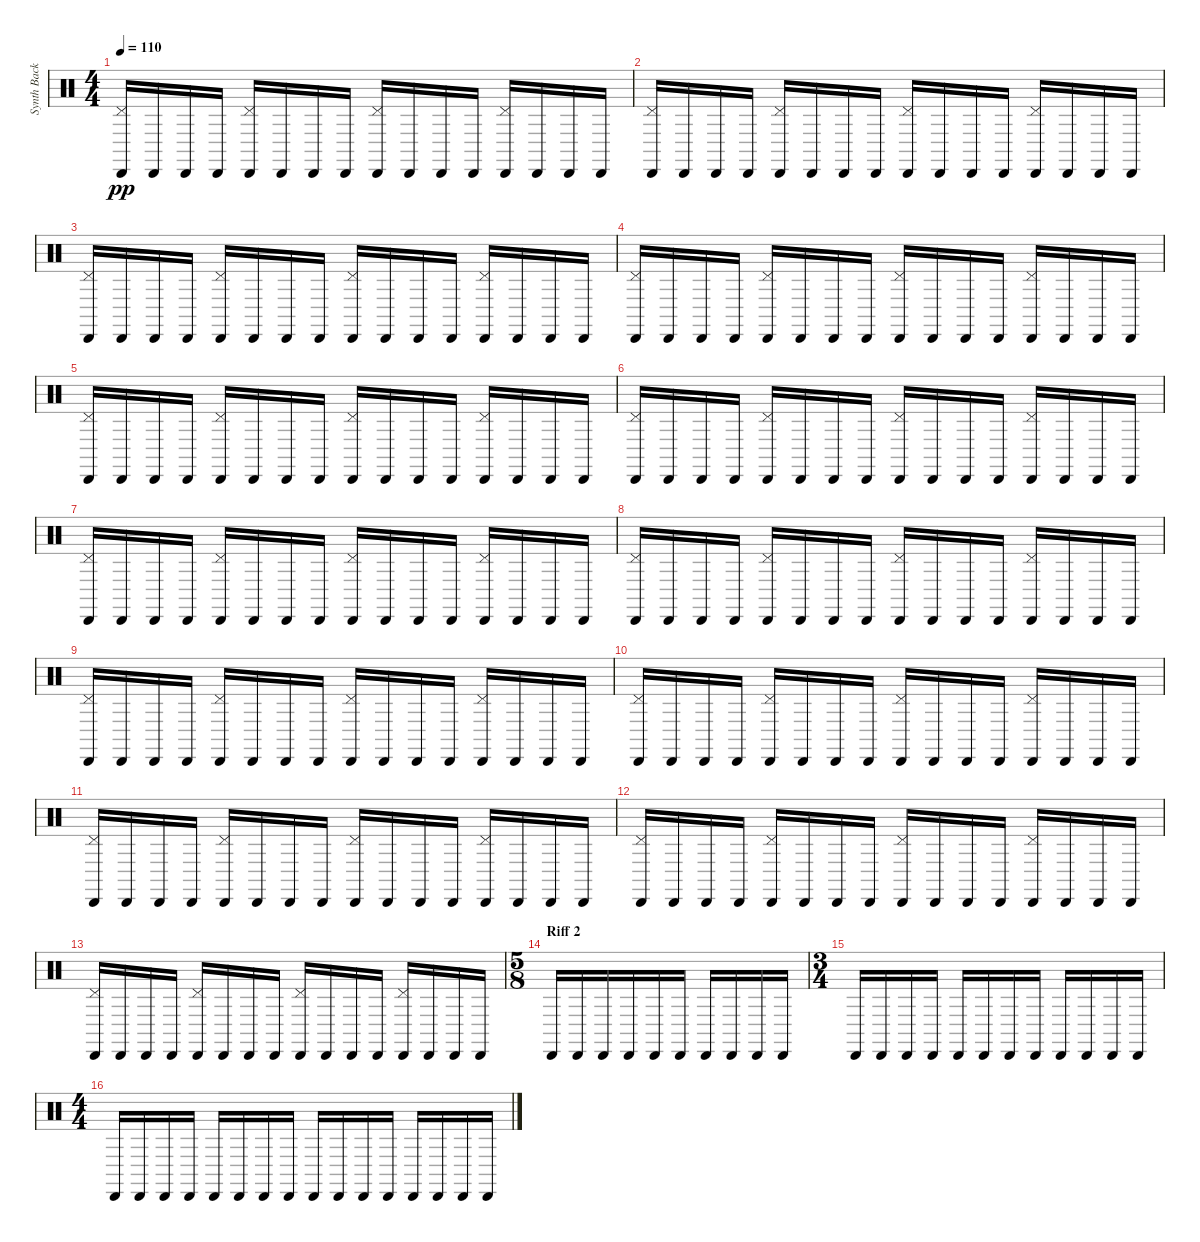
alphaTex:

\track ("Synth Background Rhythm" "Synth Back") {instrument percussion}
\staff {score}
\articulation defaults
\ts (4 4)
\tempo 110
\clef neutral
\ks c
("Pedal Hi-Hat (hit)" "Cabasa (hit)").16{dy pp} "Cabasa (hit)".16 "Cabasa (hit)".16 "Cabasa (hit)".16 ("Pedal Hi-Hat (hit)" "Cabasa (hit)").16 "Cabasa (hit)".16 "Cabasa (hit)".16 "Cabasa (hit)".16 ("Pedal Hi-Hat (hit)" "Cabasa (hit)").16 "Cabasa (hit)".16 "Cabasa (hit)".16 "Cabasa (hit)".16 ("Pedal Hi-Hat (hit)" "Cabasa (hit)").16 "Cabasa (hit)".16 "Cabasa (hit)".16 "Cabasa (hit)".16 |
("Pedal Hi-Hat (hit)" "Cabasa (hit)").16 "Cabasa (hit)".16 "Cabasa (hit)".16 "Cabasa (hit)".16 ("Pedal Hi-Hat (hit)" "Cabasa (hit)").16 "Cabasa (hit)".16 "Cabasa (hit)".16 "Cabasa (hit)".16 ("Pedal Hi-Hat (hit)" "Cabasa (hit)").16 "Cabasa (hit)".16 "Cabasa (hit)".16 "Cabasa (hit)".16 ("Pedal Hi-Hat (hit)" "Cabasa (hit)").16 "Cabasa (hit)".16 "Cabasa (hit)".16 "Cabasa (hit)".16 |
("Pedal Hi-Hat (hit)" "Cabasa (hit)").16 "Cabasa (hit)".16 "Cabasa (hit)".16 "Cabasa (hit)".16 ("Pedal Hi-Hat (hit)" "Cabasa (hit)").16 "Cabasa (hit)".16 "Cabasa (hit)".16 "Cabasa (hit)".16 ("Pedal Hi-Hat (hit)" "Cabasa (hit)").16 "Cabasa (hit)".16 "Cabasa (hit)".16 "Cabasa (hit)".16 ("Pedal Hi-Hat (hit)" "Cabasa (hit)").16 "Cabasa (hit)".16 "Cabasa (hit)".16 "Cabasa (hit)".16 |
("Pedal Hi-Hat (hit)" "Cabasa (hit)").16 "Cabasa (hit)".16 "Cabasa (hit)".16 "Cabasa (hit)".16 ("Pedal Hi-Hat (hit)" "Cabasa (hit)").16 "Cabasa (hit)".16 "Cabasa (hit)".16 "Cabasa (hit)".16 ("Pedal Hi-Hat (hit)" "Cabasa (hit)").16 "Cabasa (hit)".16 "Cabasa (hit)".16 "Cabasa (hit)".16 ("Pedal Hi-Hat (hit)" "Cabasa (hit)").16 "Cabasa (hit)".16 "Cabasa (hit)".16 "Cabasa (hit)".16 |
("Pedal Hi-Hat (hit)" "Cabasa (hit)").16 "Cabasa (hit)".16 "Cabasa (hit)".16 "Cabasa (hit)".16 ("Pedal Hi-Hat (hit)" "Cabasa (hit)").16 "Cabasa (hit)".16 "Cabasa (hit)".16 "Cabasa (hit)".16 ("Pedal Hi-Hat (hit)" "Cabasa (hit)").16 "Cabasa (hit)".16 "Cabasa (hit)".16 "Cabasa (hit)".16 ("Pedal Hi-Hat (hit)" "Cabasa (hit)").16 "Cabasa (hit)".16 "Cabasa (hit)".16 "Cabasa (hit)".16 |
("Pedal Hi-Hat (hit)" "Cabasa (hit)").16 "Cabasa (hit)".16 "Cabasa (hit)".16 "Cabasa (hit)".16 ("Pedal Hi-Hat (hit)" "Cabasa (hit)").16 "Cabasa (hit)".16 "Cabasa (hit)".16 "Cabasa (hit)".16 ("Pedal Hi-Hat (hit)" "Cabasa (hit)").16 "Cabasa (hit)".16 "Cabasa (hit)".16 "Cabasa (hit)".16 ("Pedal Hi-Hat (hit)" "Cabasa (hit)").16 "Cabasa (hit)".16 "Cabasa (hit)".16 "Cabasa (hit)".16 |
("Pedal Hi-Hat (hit)" "Cabasa (hit)").16 "Cabasa (hit)".16 "Cabasa (hit)".16 "Cabasa (hit)".16 ("Pedal Hi-Hat (hit)" "Cabasa (hit)").16 "Cabasa (hit)".16 "Cabasa (hit)".16 "Cabasa (hit)".16 ("Pedal Hi-Hat (hit)" "Cabasa (hit)").16 "Cabasa (hit)".16 "Cabasa (hit)".16 "Cabasa (hit)".16 ("Pedal Hi-Hat (hit)" "Cabasa (hit)").16 "Cabasa (hit)".16 "Cabasa (hit)".16 "Cabasa (hit)".16 |
("Pedal Hi-Hat (hit)" "Cabasa (hit)").16 "Cabasa (hit)".16 "Cabasa (hit)".16 "Cabasa (hit)".16 ("Pedal Hi-Hat (hit)" "Cabasa (hit)").16 "Cabasa (hit)".16 "Cabasa (hit)".16 "Cabasa (hit)".16 ("Pedal Hi-Hat (hit)" "Cabasa (hit)").16 "Cabasa (hit)".16 "Cabasa (hit)".16 "Cabasa (hit)".16 ("Pedal Hi-Hat (hit)" "Cabasa (hit)").16 "Cabasa (hit)".16 "Cabasa (hit)".16 "Cabasa (hit)".16 |
("Pedal Hi-Hat (hit)" "Cabasa (hit)").16 "Cabasa (hit)".16 "Cabasa (hit)".16 "Cabasa (hit)".16 ("Pedal Hi-Hat (hit)" "Cabasa (hit)").16 "Cabasa (hit)".16 "Cabasa (hit)".16 "Cabasa (hit)".16 ("Pedal Hi-Hat (hit)" "Cabasa (hit)").16 "Cabasa (hit)".16 "Cabasa (hit)".16 "Cabasa (hit)".16 ("Pedal Hi-Hat (hit)" "Cabasa (hit)").16 "Cabasa (hit)".16 "Cabasa (hit)".16 "Cabasa (hit)".16 |
("Pedal Hi-Hat (hit)" "Cabasa (hit)").16 "Cabasa (hit)".16 "Cabasa (hit)".16 "Cabasa (hit)".16 ("Pedal Hi-Hat (hit)" "Cabasa (hit)").16 "Cabasa (hit)".16 "Cabasa (hit)".16 "Cabasa (hit)".16 ("Pedal Hi-Hat (hit)" "Cabasa (hit)").16 "Cabasa (hit)".16 "Cabasa (hit)".16 "Cabasa (hit)".16 ("Pedal Hi-Hat (hit)" "Cabasa (hit)").16 "Cabasa (hit)".16 "Cabasa (hit)".16 "Cabasa (hit)".16 |
("Pedal Hi-Hat (hit)" "Cabasa (hit)").16 "Cabasa (hit)".16 "Cabasa (hit)".16 "Cabasa (hit)".16 ("Pedal Hi-Hat (hit)" "Cabasa (hit)").16 "Cabasa (hit)".16 "Cabasa (hit)".16 "Cabasa (hit)".16 ("Pedal Hi-Hat (hit)" "Cabasa (hit)").16 "Cabasa (hit)".16 "Cabasa (hit)".16 "Cabasa (hit)".16 ("Pedal Hi-Hat (hit)" "Cabasa (hit)").16 "Cabasa (hit)".16 "Cabasa (hit)".16 "Cabasa (hit)".16 |
("Pedal Hi-Hat (hit)" "Cabasa (hit)").16 "Cabasa (hit)".16 "Cabasa (hit)".16 "Cabasa (hit)".16 ("Pedal Hi-Hat (hit)" "Cabasa (hit)").16 "Cabasa (hit)".16 "Cabasa (hit)".16 "Cabasa (hit)".16 ("Pedal Hi-Hat (hit)" "Cabasa (hit)").16 "Cabasa (hit)".16 "Cabasa (hit)".16 "Cabasa (hit)".16 ("Pedal Hi-Hat (hit)" "Cabasa (hit)").16 "Cabasa (hit)".16 "Cabasa (hit)".16 "Cabasa (hit)".16 |
("Pedal Hi-Hat (hit)" "Cabasa (hit)").16 "Cabasa (hit)".16 "Cabasa (hit)".16 "Cabasa (hit)".16 ("Pedal Hi-Hat (hit)" "Cabasa (hit)").16 "Cabasa (hit)".16 "Cabasa (hit)".16 "Cabasa (hit)".16 ("Pedal Hi-Hat (hit)" "Cabasa (hit)").16 "Cabasa (hit)".16 "Cabasa (hit)".16 "Cabasa (hit)".16 ("Pedal Hi-Hat (hit)" "Cabasa (hit)").16 "Cabasa (hit)".16 "Cabasa (hit)".16 "Cabasa (hit)".16 |
\ts (5 8)
\section ("" "Riff 2")
"Cabasa (hit)".16 "Cabasa (hit)".16 "Cabasa (hit)".16 "Cabasa (hit)".16 "Cabasa (hit)".16 "Cabasa (hit)".16 "Cabasa (hit)".16 "Cabasa (hit)".16 "Cabasa (hit)".16 "Cabasa (hit)".16 |
\ts (3 4)
"Cabasa (hit)".16 "Cabasa (hit)".16 "Cabasa (hit)".16 "Cabasa (hit)".16 "Cabasa (hit)".16 "Cabasa (hit)".16 "Cabasa (hit)".16 "Cabasa (hit)".16 "Cabasa (hit)".16 "Cabasa (hit)".16 "Cabasa (hit)".16 "Cabasa (hit)".16 |
\ts (4 4)
"Cabasa (hit)".16 "Cabasa (hit)".16 "Cabasa (hit)".16 "Cabasa (hit)".16 "Cabasa (hit)".16 "Cabasa (hit)".16 "Cabasa (hit)".16 "Cabasa (hit)".16 "Cabasa (hit)".16 "Cabasa (hit)".16 "Cabasa (hit)".16 "Cabasa (hit)".16 "Cabasa (hit)".16 "Cabasa (hit)".16 "Cabasa (hit)".16 "Cabasa (hit)".16
